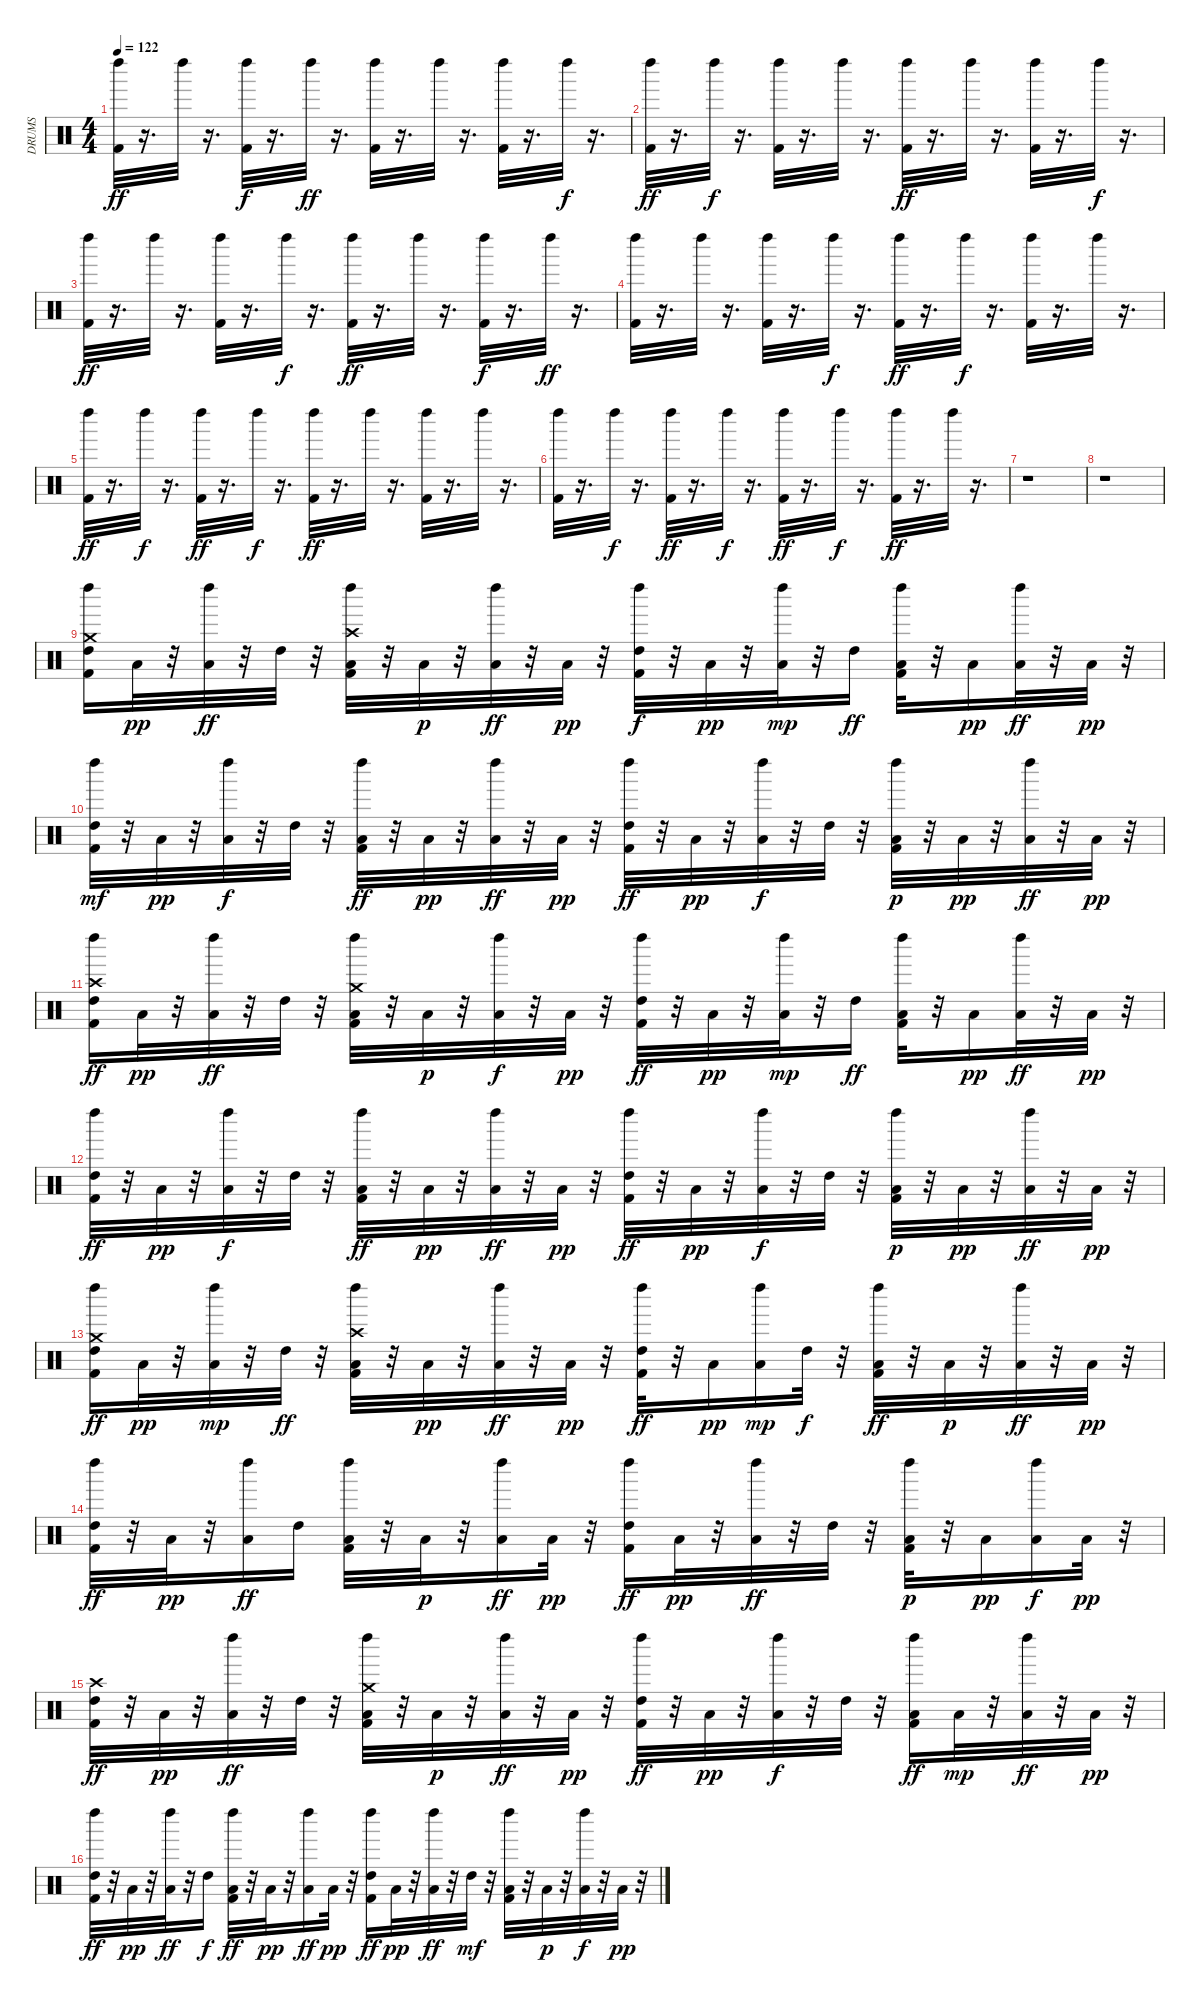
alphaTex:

\track ("DRUMS" "DRUMS") {instrument percussion}
\staff {score}
\articulation defaults
\ts (4 4)
\tempo 122
\clef neutral
\ks c
("Left Maraca (hit)" "Kick (hit) 2").32{dy ff} r.16{d} "Left Maraca (hit)".32 r.16{d} ("Left Maraca (hit)" "Kick (hit) 2").32{dy f} r.16{d} "Left Maraca (hit)".32{dy ff} r.16{d} ("Left Maraca (hit)" "Kick (hit) 2").32 r.16{d} "Left Maraca (hit)".32 r.16{d} ("Left Maraca (hit)" "Kick (hit) 2").32 r.16{d} "Left Maraca (hit)".32{dy f} r.16{d} |
("Left Maraca (hit)" "Kick (hit) 2").32{dy ff} r.16{d} "Left Maraca (hit)".32{dy f} r.16{d} ("Left Maraca (hit)" "Kick (hit) 2").32 r.16{d} "Left Maraca (hit)".32 r.16{d} ("Left Maraca (hit)" "Kick (hit) 2").32{dy ff} r.16{d} "Left Maraca (hit)".32 r.16{d} ("Left Maraca (hit)" "Kick (hit) 2").32 r.16{d} "Left Maraca (hit)".32{dy f} r.16{d} |
("Left Maraca (hit)" "Kick (hit) 2").32{dy ff} r.16{d} "Left Maraca (hit)".32 r.16{d} ("Left Maraca (hit)" "Kick (hit) 2").32 r.16{d} "Left Maraca (hit)".32{dy f} r.16{d} ("Left Maraca (hit)" "Kick (hit) 2").32{dy ff} r.16{d} "Left Maraca (hit)".32 r.16{d} ("Left Maraca (hit)" "Kick (hit) 2").32{dy f} r.16{d} "Left Maraca (hit)".32{dy ff} r.16{d} |
("Left Maraca (hit)" "Kick (hit) 2").32 r.16{d} "Left Maraca (hit)".32 r.16{d} ("Left Maraca (hit)" "Kick (hit) 2").32 r.16{d} "Left Maraca (hit)".32{dy f} r.16{d} ("Left Maraca (hit)" "Kick (hit) 2").32{dy ff} r.16{d} "Left Maraca (hit)".32{dy f} r.16{d} ("Left Maraca (hit)" "Kick (hit) 2").32 r.16{d} "Left Maraca (hit)".32 r.16{d} |
("Left Maraca (hit)" "Kick (hit) 2").32{dy ff} r.16{d} "Left Maraca (hit)".32{dy f} r.16{d} ("Left Maraca (hit)" "Kick (hit) 2").32{dy ff} r.16{d} "Left Maraca (hit)".32{dy f} r.16{d} ("Left Maraca (hit)" "Kick (hit) 2").32{dy ff} r.16{d} "Left Maraca (hit)".32 r.16{d} ("Left Maraca (hit)" "Kick (hit) 2").32 r.16{d} "Left Maraca (hit)".32 r.16{d} |
("Left Maraca (hit)" "Kick (hit) 2").32 r.16{d} "Left Maraca (hit)".32{dy f} r.16{d} ("Left Maraca (hit)" "Kick (hit) 2").32{dy ff} r.16{d} "Left Maraca (hit)".32{dy f} r.16{d} ("Left Maraca (hit)" "Kick (hit) 2").32{dy ff} r.16{d} "Left Maraca (hit)".32{dy f} r.16{d} ("Left Maraca (hit)" "Kick (hit) 2").32{dy ff} r.16{d} "Left Maraca (hit)".32 r.16{d} |
r.1 |
r.1 |
("High Tom (hit)" "Left Maraca (hit)" "Crash medium (hit)" "Kick (hit) 2").16 "Low Tom (hit)".32{dy pp} r.32 ("Low Tom (hit)" "Left Maraca (hit)").32{dy ff} r.32 "High Tom (hit)".32 r.32 ("Low Tom (hit)" "Left Maraca (hit)" "Crash high (hit)" "Kick (hit) 2").32 r.32 "Low Tom (hit)".32{dy p} r.32 ("Low Floor Tom (hit)" "Left Maraca (hit)").32{dy ff} r.32 "Low Tom (hit)".32{dy pp} r.32 ("High Tom (hit)" "Left Maraca (hit)" "Kick (hit) 2").32{dy f} r.32 "Low Tom (hit)".32{dy pp} r.32 ("Low Tom (hit)" "Left Maraca (hit)").32{dy mp} r.32 "High Tom (hit)".16{dy ff} ("Low Tom (hit)" "Left Maraca (hit)" "Kick (hit) 2").32 r.32 "Low Tom (hit)".16{dy pp} ("Low Floor Tom (hit)" "Left Maraca (hit)").32{dy ff} r.32 "Low Tom (hit)".32{dy pp} r.32 |
("High Tom (hit)" "Left Maraca (hit)" "Kick (hit) 2").32{dy mf} r.32 "Low Tom (hit)".32{dy pp} r.32 ("Low Tom (hit)" "Left Maraca (hit)").32{dy f} r.32 "High Tom (hit)".32 r.32 ("Low Tom (hit)" "Left Maraca (hit)" "Kick (hit) 2").32{dy ff} r.32 "Low Tom (hit)".32{dy pp} r.32 ("Low Floor Tom (hit)" "Left Maraca (hit)").32{dy ff} r.32 "Low Tom (hit)".32{dy pp} r.32 ("High Tom (hit)" "Left Maraca (hit)" "Kick (hit) 2").32{dy ff} r.32 "Low Tom (hit)".32{dy pp} r.32 ("Low Tom (hit)" "Left Maraca (hit)").32{dy f} r.32 "High Tom (hit)".32 r.32 ("Low Tom (hit)" "Left Maraca (hit)" "Kick (hit) 2").32{dy p} r.32 "Low Tom (hit)".32{dy pp} r.32 ("Low Floor Tom (hit)" "Left Maraca (hit)").32{dy ff} r.32 "Low Tom (hit)".32{dy pp} r.32 |
("High Tom (hit)" "Left Maraca (hit)" "Crash high (hit)" "Kick (hit) 2").16{dy ff} "Low Tom (hit)".32{dy pp} r.32 ("Low Tom (hit)" "Left Maraca (hit)").32{dy ff} r.32 "High Tom (hit)".32 r.32 ("Low Tom (hit)" "Left Maraca (hit)" "Crash medium (hit)" "Kick (hit) 2").32 r.32 "Low Tom (hit)".32{dy p} r.32 ("Low Floor Tom (hit)" "Left Maraca (hit)").32{dy f} r.32 "Low Tom (hit)".32{dy pp} r.32 ("High Tom (hit)" "Left Maraca (hit)" "Kick (hit) 2").32{dy ff} r.32 "Low Tom (hit)".32{dy pp} r.32 ("Low Tom (hit)" "Left Maraca (hit)").32{dy mp} r.32 "High Tom (hit)".16{dy ff} ("Low Tom (hit)" "Left Maraca (hit)" "Kick (hit) 2").32 r.32 "Low Tom (hit)".16{dy pp} ("Low Floor Tom (hit)" "Left Maraca (hit)").32{dy ff} r.32 "Low Tom (hit)".32{dy pp} r.32 |
("High Tom (hit)" "Left Maraca (hit)" "Kick (hit) 2").32{dy ff} r.32 "Low Tom (hit)".32{dy pp} r.32 ("Low Tom (hit)" "Left Maraca (hit)").32{dy f} r.32 "High Tom (hit)".32 r.32 ("Low Tom (hit)" "Left Maraca (hit)" "Kick (hit) 2").32{dy ff} r.32 "Low Tom (hit)".32{dy pp} r.32 ("Low Floor Tom (hit)" "Left Maraca (hit)").32{dy ff} r.32 "Low Tom (hit)".32{dy pp} r.32 ("High Tom (hit)" "Left Maraca (hit)" "Kick (hit) 2").32{dy ff} r.32 "Low Tom (hit)".32{dy pp} r.32 ("Low Tom (hit)" "Left Maraca (hit)").32{dy f} r.32 "High Tom (hit)".32 r.32 ("Low Tom (hit)" "Left Maraca (hit)" "Kick (hit) 2").32{dy p} r.32 "Low Tom (hit)".32{dy pp} r.32 ("Low Floor Tom (hit)" "Left Maraca (hit)").32{dy ff} r.32 "Low Tom (hit)".32{dy pp} r.32 |
("High Tom (hit)" "Left Maraca (hit)" "Crash medium (hit)" "Kick (hit) 2").16{dy ff} "Low Tom (hit)".32{dy pp} r.32 ("Low Tom (hit)" "Left Maraca (hit)").32{dy mp} r.32 "High Tom (hit)".32{dy ff} r.32 ("Low Tom (hit)" "Left Maraca (hit)" "Crash high (hit)" "Kick (hit) 2").32 r.32 "Low Tom (hit)".32{dy pp} r.32 ("Low Floor Tom (hit)" "Left Maraca (hit)").32{dy ff} r.32 "Low Tom (hit)".32{dy pp} r.32 ("High Tom (hit)" "Left Maraca (hit)" "Kick (hit) 2").32{dy ff} r.32 "Low Tom (hit)".16{dy pp} ("Low Tom (hit)" "Left Maraca (hit)").16{dy mp} "High Tom (hit)".32{dy f} r.32 ("Low Tom (hit)" "Left Maraca (hit)" "Kick (hit) 2").32{dy ff} r.32 "Low Tom (hit)".32{dy p} r.32 ("Low Floor Tom (hit)" "Left Maraca (hit)").32{dy ff} r.32 "Low Tom (hit)".32{dy pp} r.32 |
("High Tom (hit)" "Left Maraca (hit)" "Kick (hit) 2").32{dy ff} r.32 "Low Tom (hit)".32{dy pp} r.32 ("Low Tom (hit)" "Left Maraca (hit)").16{dy ff} "High Tom (hit)".16 ("Low Tom (hit)" "Left Maraca (hit)" "Kick (hit) 2").32 r.32 "Low Tom (hit)".32{dy p} r.32 ("Low Floor Tom (hit)" "Left Maraca (hit)").16{dy ff} "Low Tom (hit)".32{dy pp} r.32 ("High Tom (hit)" "Left Maraca (hit)" "Kick (hit) 2").16{dy ff} "Low Tom (hit)".32{dy pp} r.32 ("Low Tom (hit)" "Left Maraca (hit)").32{dy ff} r.32 "High Tom (hit)".32 r.32 ("Low Tom (hit)" "Left Maraca (hit)" "Kick (hit) 2").32{dy p} r.32 "Low Tom (hit)".16{dy pp} ("Low Floor Tom (hit)" "Left Maraca (hit)").16{dy f} "Low Tom (hit)".32{dy pp} r.32 |
("High Tom (hit)" "Crash high (hit)" "Kick (hit) 2").32{dy ff} r.32 "Low Tom (hit)".32{dy pp} r.32 ("Low Tom (hit)" "Left Maraca (hit)").32{dy ff} r.32 "High Tom (hit)".32 r.32 ("Low Tom (hit)" "Left Maraca (hit)" "Crash medium (hit)" "Kick (hit) 2").32 r.32 "Low Tom (hit)".32{dy p} r.32 ("Low Floor Tom (hit)" "Left Maraca (hit)").32{dy ff} r.32 "Low Tom (hit)".32{dy pp} r.32 ("High Tom (hit)" "Left Maraca (hit)" "Kick (hit) 2").32{dy ff} r.32 "Low Tom (hit)".32{dy pp} r.32 ("Low Tom (hit)" "Left Maraca (hit)").32{dy f} r.32 "High Tom (hit)".32 r.32 ("Low Tom (hit)" "Left Maraca (hit)" "Kick (hit) 2").16{dy ff} "Low Tom (hit)".32{dy mp} r.32 ("Low Floor Tom (hit)" "Left Maraca (hit)").32{dy ff} r.32 "Low Tom (hit)".32{dy pp} r.32 |
("High Tom (hit)" "Left Maraca (hit)" "Kick (hit) 2").32{dy ff} r.32 "Low Tom (hit)".32{dy pp} r.32 ("Low Tom (hit)" "Left Maraca (hit)").32{dy ff} r.32 "High Tom (hit)".16{dy f} ("Low Tom (hit)" "Left Maraca (hit)" "Kick (hit) 2").32{dy ff} r.32 "Low Tom (hit)".32{dy pp} r.32 ("Low Floor Tom (hit)" "Left Maraca (hit)").16{dy ff} "Low Tom (hit)".32{dy pp} r.32 ("High Tom (hit)" "Left Maraca (hit)" "Kick (hit) 2").16{dy ff} "Low Tom (hit)".32{dy pp} r.32 ("Low Tom (hit)" "Left Maraca (hit)").32{dy ff} r.32 "High Tom (hit)".32{dy mf} r.32 ("Low Tom (hit)" "Left Maraca (hit)" "Kick (hit) 2").32 r.32 "Low Tom (hit)".32{dy p} r.32 ("Low Floor Tom (hit)" "Left Maraca (hit)").32{dy f} r.32 "Low Tom (hit)".32{dy pp} r.32
